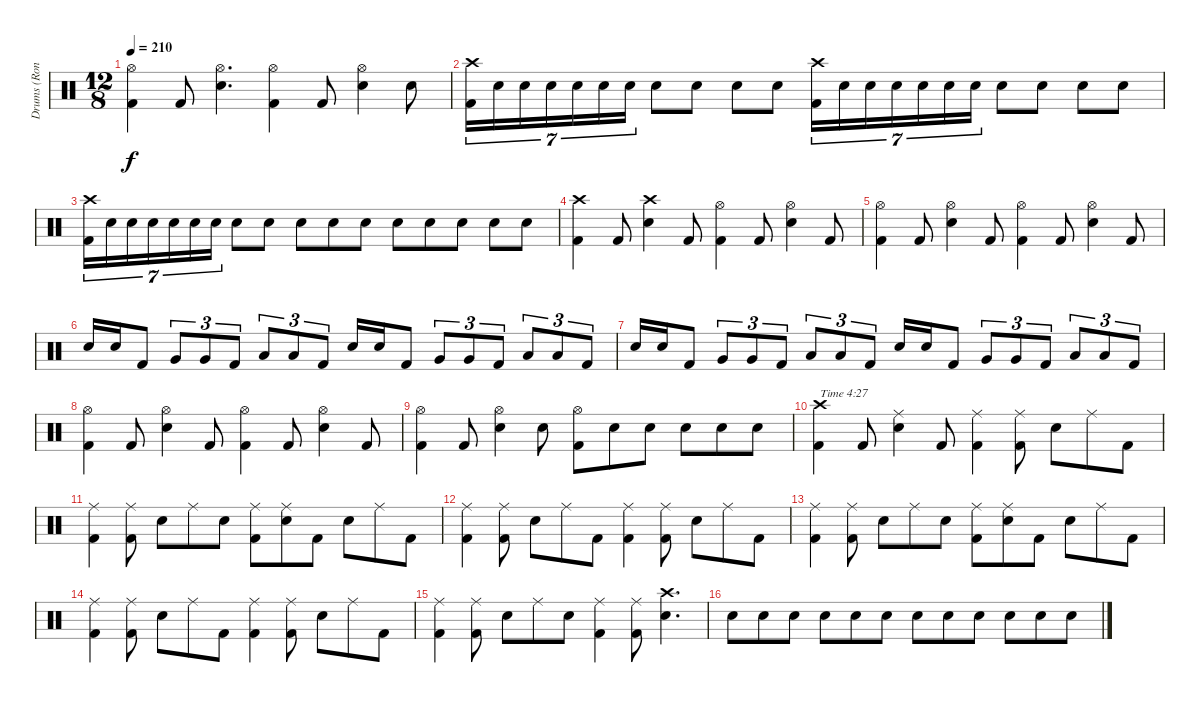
\track ("Drums (Ronny)" "Drums (Ron") {instrument percussion}
\staff {score}
\articulation defaults
\ts (12 8)
\tempo 210
\clef neutral
\ks c
("Hi-Hat (open)" "Kick (hit) 2").4{dy f} "Kick (hit) 2".8 ("Hi-Hat (open)" "Snare (hit) 2").4{d} ("Hi-Hat (open)" "Kick (hit) 2").4 "Kick (hit) 2".8 ("Hi-Hat (open)" "Snare (hit) 2").4 "Snare (hit) 2".8 |
("Crash high (hit)" "Kick (hit) 2").16{tu (7 4)} "Snare (hit) 2".16{tu (7 4)} "Snare (hit) 2".16{tu (7 4)} "Snare (hit) 2".16{tu (7 4)} "Snare (hit) 2".16{tu (7 4)} "Snare (hit) 2".16{tu (7 4)} "Snare (hit) 2".16{tu (7 4)} "Snare (hit) 2".8 "Snare (hit) 2".8 "Snare (hit) 2".8 "Snare (hit) 2".8 ("Crash high (hit)" "Kick (hit) 2").16{tu (7 4)} "Snare (hit) 2".16{tu (7 4)} "Snare (hit) 2".16{tu (7 4)} "Snare (hit) 2".16{tu (7 4)} "Snare (hit) 2".16{tu (7 4)} "Snare (hit) 2".16{tu (7 4)} "Snare (hit) 2".16{tu (7 4)} "Snare (hit) 2".8 "Snare (hit) 2".8 "Snare (hit) 2".8 "Snare (hit) 2".8 |
("Crash high (hit)" "Kick (hit) 2").16{tu (7 4)} "Snare (hit) 2".16{tu (7 4)} "Snare (hit) 2".16{tu (7 4)} "Snare (hit) 2".16{tu (7 4)} "Snare (hit) 2".16{tu (7 4)} "Snare (hit) 2".16{tu (7 4)} "Snare (hit) 2".16{tu (7 4)} "Snare (hit) 2".8 "Snare (hit) 2".8 "Snare (hit) 2".8 "Snare (hit) 2".8 "Snare (hit) 2".8 "Snare (hit) 2".8 "Snare (hit) 2".8 "Snare (hit) 2".8 "Snare (hit) 2".8 "Snare (hit) 2".8 |
("Crash high (hit)" "Kick (hit) 2").4 "Kick (hit) 2".8 ("Crash high (hit)" "Snare (hit) 2").4 "Kick (hit) 2".8 ("Hi-Hat (open)" "Kick (hit) 2").4 "Kick (hit) 2".8 ("Hi-Hat (open)" "Snare (hit) 2").4 "Kick (hit) 2".8 |
("Hi-Hat (open)" "Kick (hit) 2").4 "Kick (hit) 2".8 ("Hi-Hat (open)" "Snare (hit) 2").4 "Kick (hit) 2".8 ("Hi-Hat (open)" "Kick (hit) 2").4 "Kick (hit) 2".8 ("Hi-Hat (open)" "Snare (hit) 2").4 "Kick (hit) 2".8 |
"Snare (hit) 2".16 "Snare (hit) 2".16 "Kick (hit) 2".8 "Very Low Tom (hit)".8{tu (3 2)} "Very Low Tom (hit)".8{tu (3 2)} "Kick (hit) 2".8{tu (3 2)} "Low Floor Tom (hit)".8{tu (3 2)} "Low Floor Tom (hit)".8{tu (3 2)} "Kick (hit) 2".8{tu (3 2)} "Snare (hit) 2".16 "Snare (hit) 2".16 "Kick (hit) 2".8 "Very Low Tom (hit)".8{tu (3 2)} "Very Low Tom (hit)".8{tu (3 2)} "Kick (hit) 2".8{tu (3 2)} "Low Floor Tom (hit)".8{tu (3 2)} "Low Floor Tom (hit)".8{tu (3 2)} "Kick (hit) 2".8{tu (3 2)} |
"Snare (hit) 2".16 "Snare (hit) 2".16 "Kick (hit) 2".8 "Very Low Tom (hit)".8{tu (3 2)} "Very Low Tom (hit)".8{tu (3 2)} "Kick (hit) 2".8{tu (3 2)} "Low Floor Tom (hit)".8{tu (3 2)} "Low Floor Tom (hit)".8{tu (3 2)} "Kick (hit) 2".8{tu (3 2)} "Snare (hit) 2".16 "Snare (hit) 2".16 "Kick (hit) 2".8 "Very Low Tom (hit)".8{tu (3 2)} "Very Low Tom (hit)".8{tu (3 2)} "Kick (hit) 2".8{tu (3 2)} "Low Floor Tom (hit)".8{tu (3 2)} "Low Floor Tom (hit)".8{tu (3 2)} "Kick (hit) 2".8{tu (3 2)} |
("Hi-Hat (open)" "Kick (hit) 2").4 "Kick (hit) 2".8 ("Hi-Hat (open)" "Snare (hit) 2").4 "Kick (hit) 2".8 ("Hi-Hat (open)" "Kick (hit) 2").4 "Kick (hit) 2".8 ("Hi-Hat (open)" "Snare (hit) 2").4 "Kick (hit) 2".8 |
("Hi-Hat (open)" "Kick (hit) 2").4 "Kick (hit) 2".8 ("Hi-Hat (open)" "Snare (hit) 2").4 "Snare (hit) 2".8 ("Hi-Hat (open)" "Kick (hit) 2").8 "Snare (hit) 2".8 "Snare (hit) 2".8 "Snare (hit) 2".8 "Snare (hit) 2".8 "Snare (hit) 2".8 |
("Crash high (hit)" "Kick (hit) 2").4{txt "Time 4:27"} "Kick (hit) 2".8 ("Ride (middle)" "Snare (hit) 2").4 "Kick (hit) 2".8 ("Ride (middle)" "Kick (hit) 2").4 ("Ride (middle)" "Kick (hit) 2").8 "Snare (hit) 2".8 "Ride (middle)".8 "Kick (hit) 2".8 |
("Ride (middle)" "Kick (hit) 2").4 ("Ride (middle)" "Kick (hit) 2").8 "Snare (hit) 2".8 "Ride (middle)".8 "Snare (hit) 2".8 ("Ride (middle)" "Kick (hit) 2").8 ("Ride (middle)" "Snare (hit) 2").8 "Kick (hit) 2".8 "Snare (hit) 2".8 "Ride (middle)".8 "Kick (hit) 2".8 |
("Ride (middle)" "Kick (hit) 2").4 ("Ride (middle)" "Kick (hit) 2").8 "Snare (hit) 2".8 "Ride (middle)".8 "Kick (hit) 2".8 ("Ride (middle)" "Kick (hit) 2").4 ("Ride (middle)" "Kick (hit) 2").8 "Snare (hit) 2".8 "Ride (middle)".8 "Kick (hit) 2".8 |
("Ride (middle)" "Kick (hit) 2").4 ("Ride (middle)" "Kick (hit) 2").8 "Snare (hit) 2".8 "Ride (middle)".8 "Snare (hit) 2".8 ("Ride (middle)" "Kick (hit) 2").8 ("Ride (middle)" "Snare (hit) 2").8 "Kick (hit) 2".8 "Snare (hit) 2".8 "Ride (middle)".8 "Kick (hit) 2".8 |
("Ride (middle)" "Kick (hit) 2").4 ("Ride (middle)" "Kick (hit) 2").8 "Snare (hit) 2".8 "Ride (middle)".8 "Kick (hit) 2".8 ("Ride (middle)" "Kick (hit) 2").4 ("Ride (middle)" "Kick (hit) 2").8 "Snare (hit) 2".8 "Ride (middle)".8 "Kick (hit) 2".8 |
("Ride (middle)" "Kick (hit) 2").4 ("Ride (middle)" "Kick (hit) 2").8 "Snare (hit) 2".8 "Ride (middle)".8 "Snare (hit) 2".8 ("Ride (middle)" "Kick (hit) 2").4 ("Ride (middle)" "Kick (hit) 2").8 ("Crash high (hit)" "Snare (hit) 2").4{d} |
"Snare (hit) 2".8 "Snare (hit) 2".8 "Snare (hit) 2".8 "Snare (hit) 2".8 "Snare (hit) 2".8 "Snare (hit) 2".8 "Snare (hit) 2".8 "Snare (hit) 2".8 "Snare (hit) 2".8 "Snare (hit) 2".8 "Snare (hit) 2".8 "Snare (hit) 2".8
